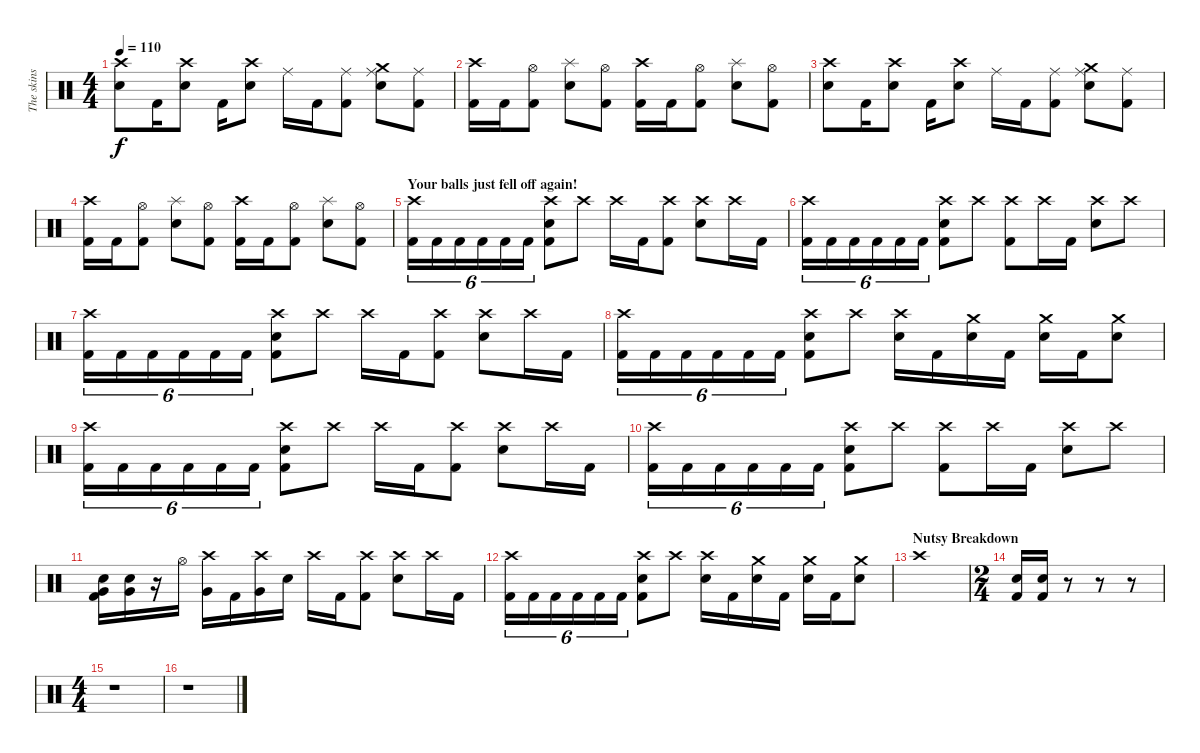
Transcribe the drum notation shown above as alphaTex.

\track ("The skins" "The skins") {instrument percussion}
\staff {score}
\articulation defaults
\ts (4 4)
\tempo 110
\clef neutral
\ks c
("Crash high (hit)" "Electric Snare (hit)").8{dy f} "Kick (hit) 2".16 ("Crash high (hit)" "Electric Snare (hit)").8 "Kick (hit) 2".16 ("Crash high (hit)" "Electric Snare (hit)").8 "Ride (middle)".16 "Kick (hit) 2".16 ("Ride (middle)" "Kick (hit) 2").8 ("Crash medium (hit)" "Ride (middle)" "Electric Snare (hit)").8 ("Ride (middle)" "Kick (hit) 2").8 |
("Crash high (hit)" "Kick (hit) 2").16 "Kick (hit) 2".16 ("Hi-Hat (open)" "Kick (hit) 2").8 ("Splash (hit)" "Electric Snare (hit)").8 ("Hi-Hat (open)" "Kick (hit) 2").8 ("Crash high (hit)" "Kick (hit) 2").16 "Kick (hit) 2".16 ("Hi-Hat (open)" "Kick (hit) 2").8 ("Splash (hit)" "Electric Snare (hit)").8 ("Hi-Hat (open)" "Kick (hit) 2").8 |
("Crash high (hit)" "Electric Snare (hit)").8 "Kick (hit) 2".16 ("Crash high (hit)" "Electric Snare (hit)").8 "Kick (hit) 2".16 ("Crash high (hit)" "Electric Snare (hit)").8 "Ride (middle)".16 "Kick (hit) 2".16 ("Ride (middle)" "Kick (hit) 2").8 ("Crash medium (hit)" "Ride (middle)" "Electric Snare (hit)").8 ("Ride (middle)" "Kick (hit) 2").8 |
("Crash high (hit)" "Kick (hit) 2").16 "Kick (hit) 2".16 ("Hi-Hat (open)" "Kick (hit) 2").8 ("Splash (hit)" "Electric Snare (hit)").8 ("Hi-Hat (open)" "Kick (hit) 2").8 ("Crash high (hit)" "Kick (hit) 2").16 "Kick (hit) 2".16 ("Hi-Hat (open)" "Kick (hit) 2").8 ("Splash (hit)" "Electric Snare (hit)").8 ("Hi-Hat (open)" "Kick (hit) 2").8 |
\section ("" "Your balls just fell off again!")
("Crash high (hit)" "Kick (hit) 2").16{tu (6 4)} "Kick (hit) 2".16{tu (6 4)} "Kick (hit) 2".16{tu (6 4)} "Kick (hit) 2".16{tu (6 4)} "Kick (hit) 2".16{tu (6 4)} "Kick (hit) 2".16{tu (6 4)} ("Crash high (hit)" "Electric Snare (hit)" "Kick (hit) 2").8 "Crash high (hit)".8 "Crash high (hit)".16 "Kick (hit) 2".16 ("Crash high (hit)" "Kick (hit) 2").8 ("Crash high (hit)" "Electric Snare (hit)").8 "Crash high (hit)".16 "Kick (hit) 2".16 |
("Crash high (hit)" "Kick (hit) 2").16{tu (6 4)} "Kick (hit) 2".16{tu (6 4)} "Kick (hit) 2".16{tu (6 4)} "Kick (hit) 2".16{tu (6 4)} "Kick (hit) 2".16{tu (6 4)} "Kick (hit) 2".16{tu (6 4)} ("Crash high (hit)" "Electric Snare (hit)" "Kick (hit) 2").8 "Crash high (hit)".8 ("Crash high (hit)" "Kick (hit) 2").8 "Crash high (hit)".16 "Kick (hit) 2".16 ("Crash high (hit)" "Electric Snare (hit)").8 "Crash high (hit)".8 |
("Crash high (hit)" "Kick (hit) 2").16{tu (6 4)} "Kick (hit) 2".16{tu (6 4)} "Kick (hit) 2".16{tu (6 4)} "Kick (hit) 2".16{tu (6 4)} "Kick (hit) 2".16{tu (6 4)} "Kick (hit) 2".16{tu (6 4)} ("Crash high (hit)" "Electric Snare (hit)" "Kick (hit) 2").8 "Crash high (hit)".8 "Crash high (hit)".16 "Kick (hit) 2".16 ("Crash high (hit)" "Kick (hit) 2").8 ("Crash high (hit)" "Electric Snare (hit)").8 "Crash high (hit)".16 "Kick (hit) 2".16 |
("Crash high (hit)" "Kick (hit) 2").16{tu (6 4)} "Kick (hit) 2".16{tu (6 4)} "Kick (hit) 2".16{tu (6 4)} "Kick (hit) 2".16{tu (6 4)} "Kick (hit) 2".16{tu (6 4)} "Kick (hit) 2".16{tu (6 4)} ("Crash high (hit)" "Electric Snare (hit)" "Kick (hit) 2").8 "Crash high (hit)".8 ("Crash high (hit)" "Electric Snare (hit)").16 "Kick (hit) 2".16 ("Crash medium (hit)" "Electric Snare (hit)").16 "Kick (hit) 2".16 ("Crash medium (hit)" "Electric Snare (hit)").16 "Kick (hit) 2".16 ("Crash medium (hit)" "Electric Snare (hit)").8 |
("Crash high (hit)" "Kick (hit) 2").16{tu (6 4)} "Kick (hit) 2".16{tu (6 4)} "Kick (hit) 2".16{tu (6 4)} "Kick (hit) 2".16{tu (6 4)} "Kick (hit) 2".16{tu (6 4)} "Kick (hit) 2".16{tu (6 4)} ("Crash high (hit)" "Electric Snare (hit)" "Kick (hit) 2").8 "Crash high (hit)".8 "Crash high (hit)".16 "Kick (hit) 2".16 ("Crash high (hit)" "Kick (hit) 2").8 ("Crash high (hit)" "Electric Snare (hit)").8 "Crash high (hit)".16 "Kick (hit) 2".16 |
("Crash high (hit)" "Kick (hit) 2").16{tu (6 4)} "Kick (hit) 2".16{tu (6 4)} "Kick (hit) 2".16{tu (6 4)} "Kick (hit) 2".16{tu (6 4)} "Kick (hit) 2".16{tu (6 4)} "Kick (hit) 2".16{tu (6 4)} ("Crash high (hit)" "Electric Snare (hit)" "Kick (hit) 2").8 "Crash high (hit)".8 ("Crash high (hit)" "Kick (hit) 2").8 "Crash high (hit)".16 "Kick (hit) 2".16 ("Crash high (hit)" "Electric Snare (hit)").8 "Crash high (hit)".8 |
("Very Low Tom (hit)" "Electric Snare (hit)" "Kick (hit) 2").16 ("Very Low Tom (hit)" "Electric Snare (hit)").16 r.16 "Hi-Hat (open)".16 ("Crash high (hit)" "Very Low Tom (hit)").16 "Kick (hit) 2".16 ("Crash high (hit)" "Very Low Tom (hit)").16 "Electric Snare (hit)".16 "Crash high (hit)".16 "Kick (hit) 2".16 ("Crash high (hit)" "Kick (hit) 2").8 ("Crash high (hit)" "Electric Snare (hit)").8 "Crash high (hit)".16 "Kick (hit) 2".16 |
("Crash high (hit)" "Kick (hit) 2").16{tu (6 4)} "Kick (hit) 2".16{tu (6 4)} "Kick (hit) 2".16{tu (6 4)} "Kick (hit) 2".16{tu (6 4)} "Kick (hit) 2".16{tu (6 4)} "Kick (hit) 2".16{tu (6 4)} ("Crash high (hit)" "Electric Snare (hit)" "Kick (hit) 2").8 "Crash high (hit)".8 ("Crash high (hit)" "Electric Snare (hit)").16 "Kick (hit) 2".16 ("Crash medium (hit)" "Electric Snare (hit)").16 "Kick (hit) 2".16 ("Crash medium (hit)" "Electric Snare (hit)").16 "Kick (hit) 2".16 ("Crash medium (hit)" "Electric Snare (hit)").8 |
\section ("" "Nutsy Breakdown")
"Crash high (hit)".1 |
\ts (2 4)
("Electric Snare (hit)" "Kick (hit) 2").16 ("Electric Snare (hit)" "Kick (hit) 2").16 r.8 r.8 r.8 |
\ts (4 4)
r.1 |
r.1
